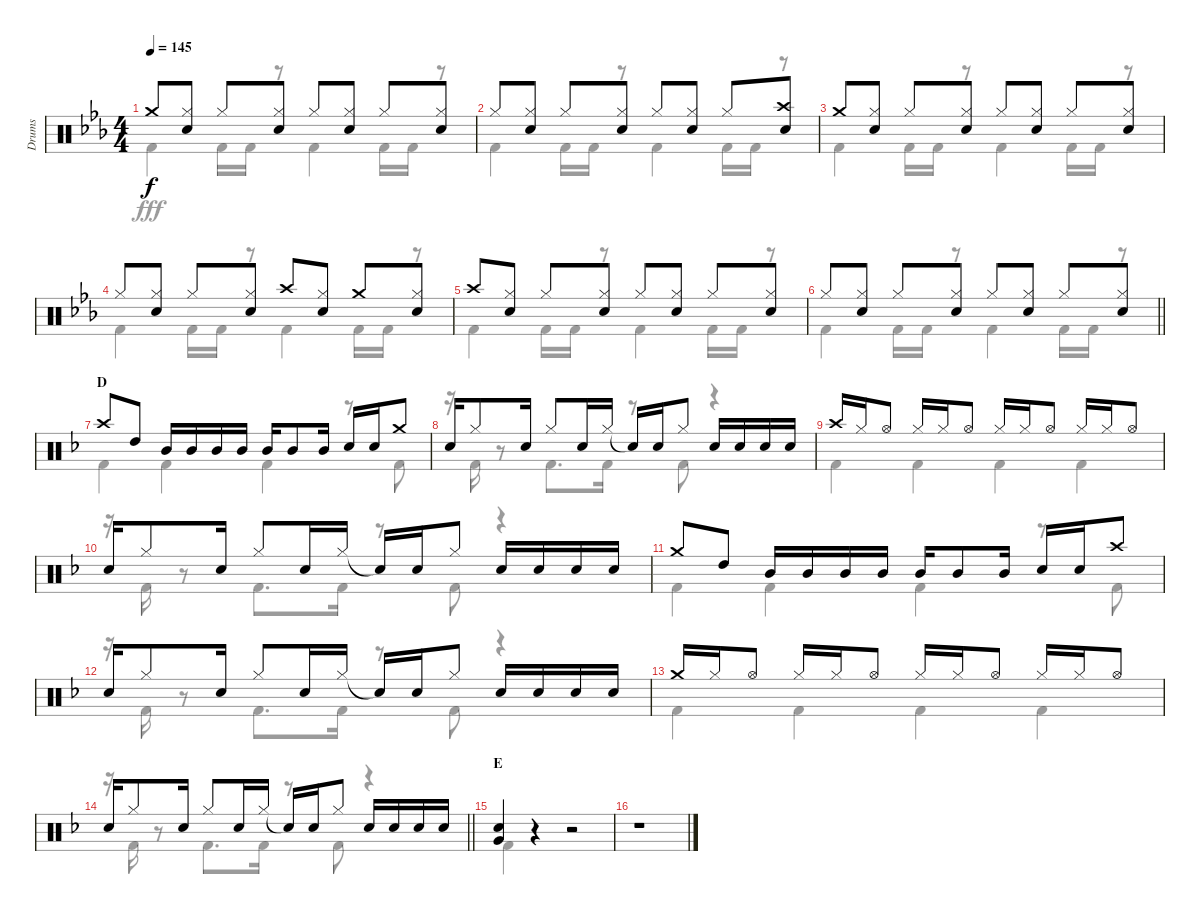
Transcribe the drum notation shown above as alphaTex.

\track ("Drums" "Drums") {instrument percussion}
\staff {score}
\articulation defaults
\voice
\ts (4 4)
\tempo 145
\clef neutral
\ks eb "Crash medium (hit)".8{dy f}
("Hi-Hat (closed)" "Snare (hit) 2").8 "Hi-Hat (closed)".8 ("Hi-Hat (closed)" "Snare (hit) 2").8 "Hi-Hat (closed)".8 ("Hi-Hat (closed)" "Snare (hit) 2").8 "Hi-Hat (closed)".8 ("Hi-Hat (closed)" "Snare (hit) 2").8 |
"Hi-Hat (closed)".8 ("Hi-Hat (closed)" "Snare (hit) 2").8 "Hi-Hat (closed)".8 ("Hi-Hat (closed)" "Snare (hit) 2").8 "Hi-Hat (closed)".8 ("Hi-Hat (closed)" "Snare (hit) 2").8 "Hi-Hat (closed)".8 ("Crash high (hit)" "Snare (hit) 2").8 |
"Crash medium (hit)".8 ("Hi-Hat (closed)" "Snare (hit) 2").8 "Hi-Hat (closed)".8 ("Hi-Hat (closed)" "Snare (hit) 2").8 "Hi-Hat (closed)".8 ("Hi-Hat (closed)" "Snare (hit) 2").8 "Hi-Hat (closed)".8 ("Hi-Hat (closed)" "Snare (hit) 2").8 |
"Hi-Hat (closed)".8 ("Hi-Hat (closed)" "Snare (hit) 2").8 "Hi-Hat (closed)".8 ("Hi-Hat (closed)" "Snare (hit) 2").8 "Crash high (hit)".8 ("Hi-Hat (closed)" "Snare (hit) 2").8 "Crash medium (hit)".8 ("Hi-Hat (closed)" "Snare (hit) 2").8 |
"Crash high (hit)".8 ("Hi-Hat (closed)" "Snare (hit) 2").8 "Hi-Hat (closed)".8 ("Hi-Hat (closed)" "Snare (hit) 2").8 "Hi-Hat (closed)".8 ("Hi-Hat (closed)" "Snare (hit) 2").8 "Hi-Hat (closed)".8 ("Hi-Hat (closed)" "Snare (hit) 2").8 |
\barLineRight lightlight "Hi-Hat (closed)".8
("Hi-Hat (closed)" "Snare (hit) 2").8 "Hi-Hat (closed)".8 ("Hi-Hat (closed)" "Snare (hit) 2").8 "Hi-Hat (closed)".8 ("Hi-Hat (closed)" "Snare (hit) 2").8 "Hi-Hat (closed)".8 ("Hi-Hat (closed)" "Snare (hit) 2").8 |
\section ("" "D")
\ks f "Crash high (hit)".8 "High Tom (hit)".8 "Mid Tom (hit)".16 "Mid Tom (hit)".16 "Mid Tom (hit)".16 "Mid Tom (hit)".16 "Mid Tom (hit)".16 "Mid Tom (hit)".8 "Mid Tom (hit)".16 "Snare (hit) 2".16 "Snare (hit) 2".16 "Crash medium (hit)".8
|
"Snare (hit) 2".16 "Hi-Hat (closed)".8 "Snare (hit) 2".16 "Hi-Hat (closed)".8 "Snare (hit) 2".16 "Hi-Hat (closed)".16 "Snare (hit)"{t}.16 "Snare (hit) 2".16 "Hi-Hat (closed)".8 "Snare (hit) 2".16 "Snare (hit) 2".16 "Snare (hit) 2".16 "Snare (hit) 2".16 |
"Crash high (hit)".16 "Hi-Hat (closed)".16 "Hi-Hat (open)".8 "Hi-Hat (closed)".16 "Hi-Hat (closed)".16 "Hi-Hat (open)".8 "Hi-Hat (closed)".16 "Hi-Hat (closed)".16 "Hi-Hat (open)".8 "Hi-Hat (closed)".16 "Hi-Hat (closed)".16 "Hi-Hat (open)".8 |
"Snare (hit) 2".16 "Hi-Hat (closed)".8 "Snare (hit) 2".16 "Hi-Hat (closed)".8 "Snare (hit) 2".16 "Hi-Hat (closed)".16 "Snare (hit)"{t}.16 "Snare (hit) 2".16 "Hi-Hat (closed)".8 "Snare (hit) 2".16 "Snare (hit) 2".16 "Snare (hit) 2".16 "Snare (hit) 2".16 |
"Crash medium (hit)".8 "High Tom (hit)".8 "Mid Tom (hit)".16 "Mid Tom (hit)".16 "Mid Tom (hit)".16 "Mid Tom (hit)".16 "Mid Tom (hit)".16 "Mid Tom (hit)".8 "Mid Tom (hit)".16 "Snare (hit) 2".16 "Snare (hit) 2".16 "Crash high (hit)".8 |
"Snare (hit) 2".16 "Hi-Hat (closed)".8 "Snare (hit) 2".16 "Hi-Hat (closed)".8 "Snare (hit) 2".16 "Hi-Hat (closed)".16 "Snare (hit)"{t}.16 "Snare (hit) 2".16 "Hi-Hat (closed)".8 "Snare (hit) 2".16 "Snare (hit) 2".16 "Snare (hit) 2".16 "Snare (hit) 2".16 |
"Crash medium (hit)".16 "Hi-Hat (closed)".16 "Hi-Hat (open)".8 "Hi-Hat (closed)".16 "Hi-Hat (closed)".16 "Hi-Hat (open)".8 "Hi-Hat (closed)".16 "Hi-Hat (closed)".16 "Hi-Hat (open)".8 "Hi-Hat (closed)".16 "Hi-Hat (closed)".16 "Hi-Hat (open)".8 |
\barLineRight lightlight "Snare (hit) 2".16 "Hi-Hat (closed)".8 "Snare (hit) 2".16 "Hi-Hat (closed)".8 "Snare (hit) 2".16 "Hi-Hat (closed)".16 "Snare (hit)"{t}.16 "Snare (hit) 2".16 "Hi-Hat (closed)".8 "Snare (hit) 2".16 "Snare (hit) 2".16 "Snare (hit) 2".16 "Snare (hit) 2".16
|
\section ("" "E")
("Snare (hit) 2" "Very Low Tom (hit)").4 r.4 r.2 |
r.1
\voice
\clef neutral
\ottava regular
\simile none
\ks eb "Kick (hit) 2".4{dy fff} "Kick (hit) 2".16 "Kick (hit) 2".16
r.8 "Kick (hit) 2".4 "Kick (hit) 2".16 "Kick (hit) 2".16 r.8 |
"Kick (hit) 2".4 "Kick (hit) 2".16 "Kick (hit) 2".16 r.8 "Kick (hit) 2".4 "Kick (hit) 2".16 "Kick (hit) 2".16 r.8 |
"Kick (hit) 2".4 "Kick (hit) 2".16 "Kick (hit) 2".16 r.8 "Kick (hit) 2".4 "Kick (hit) 2".16 "Kick (hit) 2".16 r.8 |
"Kick (hit) 2".4 "Kick (hit) 2".16 "Kick (hit) 2".16 r.8 "Kick (hit) 2".4 "Kick (hit) 2".16 "Kick (hit) 2".16 r.8 |
"Kick (hit) 2".4 "Kick (hit) 2".16 "Kick (hit) 2".16 r.8 "Kick (hit) 2".4 "Kick (hit) 2".16 "Kick (hit) 2".16 r.8 |
\barLineRight lightlight "Kick (hit) 2".4 "Kick (hit) 2".16 "Kick (hit) 2".16
r.8 "Kick (hit) 2".4 "Kick (hit) 2".16 "Kick (hit) 2".16 r.8 |
\ks f "Kick (hit) 2".4 "Kick (hit) 2".4 "Kick (hit) 2".4
r.8 "Kick (hit) 2".8 |
r.16 "Kick (hit) 2".16 r.8 "Kick (hit) 2".8{d} "Kick (hit) 2".16 r.8 "Kick (hit) 2".8 r.4 |
"Kick (hit) 2".4 "Kick (hit) 2".4 "Kick (hit) 2".4 "Kick (hit) 2".4 |
r.16 "Kick (hit) 2".16 r.8 "Kick (hit) 2".8{d} "Kick (hit) 2".16 r.8 "Kick (hit) 2".8 r.4 |
"Kick (hit) 2".4 "Kick (hit) 2".4 "Kick (hit) 2".4 r.8 "Kick (hit) 2".8 |
r.16 "Kick (hit) 2".16 r.8 "Kick (hit) 2".8{d} "Kick (hit) 2".16 r.8 "Kick (hit) 2".8 r.4 |
"Kick (hit) 2".4 "Kick (hit) 2".4 "Kick (hit) 2".4 "Kick (hit) 2".4 |
\barLineRight lightlight
r.16 "Kick (hit) 2".16 r.8 "Kick (hit) 2".8{d} "Kick (hit) 2".16 r.8 "Kick (hit) 2".8 r.4 |
"Kick (hit) 2".4 r.4 r.2 |
r.1
